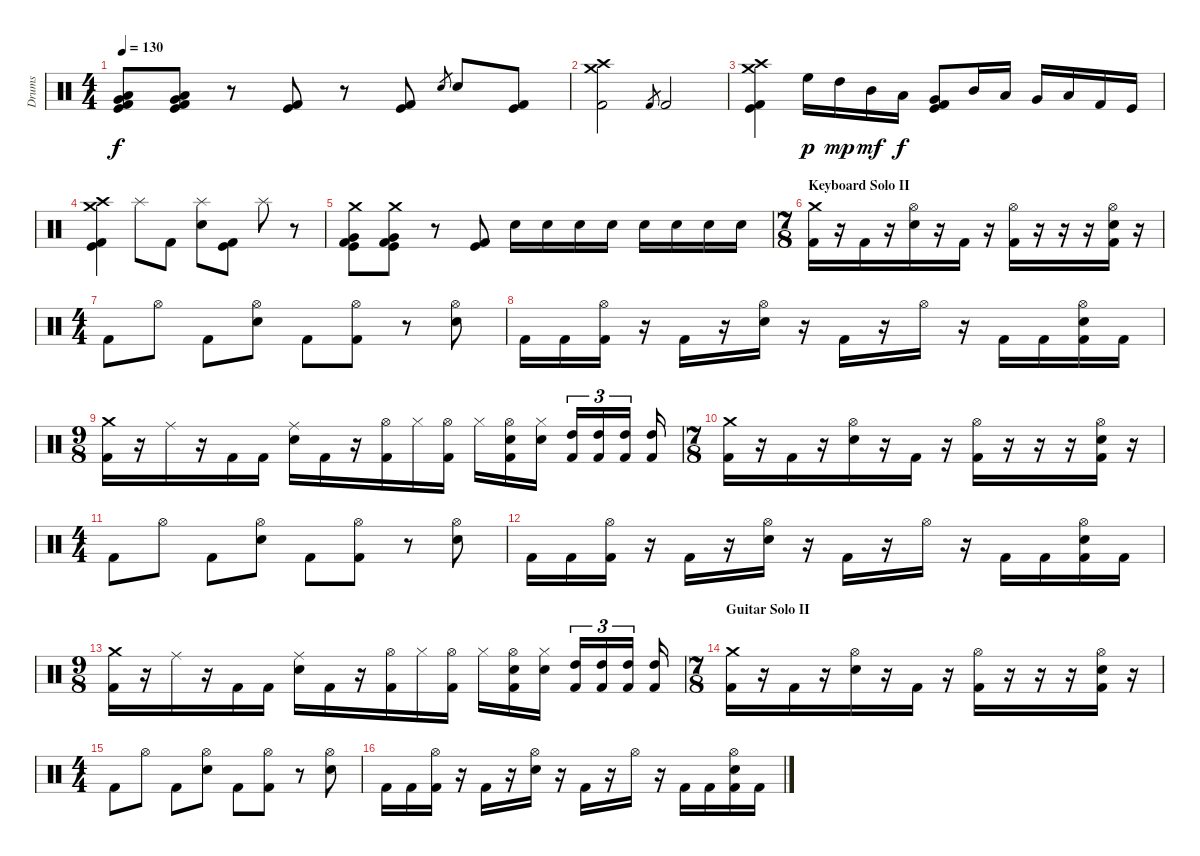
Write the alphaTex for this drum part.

\track ("Drums" "Drums") {instrument percussion}
\staff {score}
\articulation defaults
\ts (4 4)
\tempo 130
\clef neutral
\ks c
("Low Floor Tom (hit)" "Very Low Tom (hit)" "Kick (hit) 2" "Kick (hit)").8{dy f} ("Low Floor Tom (hit)" "Very Low Tom (hit)" "Kick (hit) 2" "Kick (hit)").8 r.8 ("Kick (hit)" "Kick (hit) 2").8 r.8 ("Kick (hit)" "Kick (hit) 2").8 "Electric Snare (hit)".8{gr} "Electric Snare (hit)".8 ("Kick (hit)" "Kick (hit) 2").8 |
("Crash medium (hit)" "Crash high (hit)" "Kick (hit) 2").2 "Kick (hit) 2".8{gr} "Kick (hit) 2".2 |
("Crash medium (hit)" "Crash high (hit)" "Kick (hit) 2" "Kick (hit)").4 "High Floor Tom (hit)".16{dy p} "High Tom (hit)".16{dy mp} "Mid Tom (hit)".16{dy mf} "Low Tom (hit)".16{dy f} ("Very Low Tom (hit)" "Kick (hit) 2" "Kick (hit)").8 "Mid Tom (hit)".16 "Low Tom (hit)".16 "Very Low Tom (hit)".16 "Low Floor Tom (hit)".16 "Kick (hit) 2".16 "Kick (hit)".16 |
("Crash medium (hit)" "Crash high (hit)" "Kick (hit) 2" "Kick (hit)").4 "Splash (hit)".8 "Kick (hit) 2".8 ("Splash (hit)" "Electric Snare (hit)").8 ("Kick (hit) 2" "Kick (hit)").8 "Splash (hit)".8 r.8 |
("Crash medium (hit)" "Very Low Tom (hit)" "Kick (hit) 2" "Kick (hit)").8 ("Crash medium (hit)" "Very Low Tom (hit)" "Kick (hit) 2" "Kick (hit)").8 r.8 ("Kick (hit)" "Kick (hit) 2").8 "Electric Snare (hit)".16 "Electric Snare (hit)".16 "Electric Snare (hit)".16 "Electric Snare (hit)".16 "Electric Snare (hit)".16 "Electric Snare (hit)".16 "Electric Snare (hit)".16 "Electric Snare (hit)".16 |
\ts (7 8)
\section ("" "Keyboard Solo II")
("Crash medium (hit)" "Kick (hit) 2").16 r.16 "Kick (hit) 2".16 r.16 ("Hi-Hat (open)" "Electric Snare (hit)").16 r.16 "Kick (hit) 2".16 r.16 ("Hi-Hat (open)" "Kick (hit) 2").16 r.16 r.16 r.16 ("Hi-Hat (open)" "Electric Snare (hit)" "Kick (hit) 2").16 r.16 |
\ts (4 4)
"Kick (hit) 2".8 "Hi-Hat (open)".8 "Kick (hit) 2".8 ("Hi-Hat (open)" "Electric Snare (hit)").8 "Kick (hit) 2".8 ("Hi-Hat (open)" "Kick (hit) 2").8 r.8 ("Hi-Hat (open)" "Electric Snare (hit)").8 |
"Kick (hit) 2".16 "Kick (hit) 2".16 ("Hi-Hat (open)" "Kick (hit) 2").16 r.16 "Kick (hit) 2".16 r.16 ("Hi-Hat (open)" "Electric Snare (hit)").16 r.16 "Kick (hit) 2".16 r.16 "Hi-Hat (open)".16 r.16 "Kick (hit) 2".16 "Kick (hit) 2".16 ("Hi-Hat (open)" "Electric Snare (hit)" "Kick (hit) 2").16 "Kick (hit) 2".16 |
\ts (9 8)
("Crash medium (hit)" "Kick (hit) 2").16 r.16 "Ride (middle)".16 r.16 "Kick (hit) 2".16 "Kick (hit) 2".16 ("Ride (middle)" "Electric Snare (hit)").16 "Kick (hit) 2".16 r.16 ("Hi-Hat (open)" "Kick (hit) 2").16 "Hi-Hat (closed)".16 ("Hi-Hat (open)" "Kick (hit) 2").16 "Hi-Hat (closed)".16 ("Hi-Hat (open)" "Electric Snare (hit)" "Kick (hit) 2").16 ("Hi-Hat (closed)" "Electric Snare (hit)").16 ("High Tom (hit)" "Kick (hit) 2").16{tu (3 2)} ("High Tom (hit)" "Kick (hit) 2").16{tu (3 2)} ("High Tom (hit)" "Kick (hit) 2").16{tu (3 2)} ("High Tom (hit)" "Kick (hit) 2").16 |
\ts (7 8)
("Crash medium (hit)" "Kick (hit) 2").16 r.16 "Kick (hit) 2".16 r.16 ("Hi-Hat (open)" "Electric Snare (hit)").16 r.16 "Kick (hit) 2".16 r.16 ("Hi-Hat (open)" "Kick (hit) 2").16 r.16 r.16 r.16 ("Hi-Hat (open)" "Electric Snare (hit)" "Kick (hit) 2").16 r.16 |
\ts (4 4)
"Kick (hit) 2".8 "Hi-Hat (open)".8 "Kick (hit) 2".8 ("Hi-Hat (open)" "Electric Snare (hit)").8 "Kick (hit) 2".8 ("Hi-Hat (open)" "Kick (hit) 2").8 r.8 ("Hi-Hat (open)" "Electric Snare (hit)").8 |
"Kick (hit) 2".16 "Kick (hit) 2".16 ("Hi-Hat (open)" "Kick (hit) 2").16 r.16 "Kick (hit) 2".16 r.16 ("Hi-Hat (open)" "Electric Snare (hit)").16 r.16 "Kick (hit) 2".16 r.16 "Hi-Hat (open)".16 r.16 "Kick (hit) 2".16 "Kick (hit) 2".16 ("Hi-Hat (open)" "Electric Snare (hit)" "Kick (hit) 2").16 "Kick (hit) 2".16 |
\ts (9 8)
("Crash medium (hit)" "Kick (hit) 2").16 r.16 "Ride (middle)".16 r.16 "Kick (hit) 2".16 "Kick (hit) 2".16 ("Ride (middle)" "Electric Snare (hit)").16 "Kick (hit) 2".16 r.16 ("Hi-Hat (open)" "Kick (hit) 2").16 "Hi-Hat (closed)".16 ("Hi-Hat (open)" "Kick (hit) 2").16 "Hi-Hat (closed)".16 ("Hi-Hat (open)" "Electric Snare (hit)" "Kick (hit) 2").16 ("Hi-Hat (closed)" "Electric Snare (hit)").16 ("High Tom (hit)" "Kick (hit) 2").16{tu (3 2)} ("High Tom (hit)" "Kick (hit) 2").16{tu (3 2)} ("High Tom (hit)" "Kick (hit) 2").16{tu (3 2)} ("High Tom (hit)" "Kick (hit) 2").16 |
\ts (7 8)
\section ("" "Guitar Solo II")
("Crash medium (hit)" "Kick (hit) 2").16 r.16 "Kick (hit) 2".16 r.16 ("Hi-Hat (open)" "Electric Snare (hit)").16 r.16 "Kick (hit) 2".16 r.16 ("Hi-Hat (open)" "Kick (hit) 2").16 r.16 r.16 r.16 ("Hi-Hat (open)" "Electric Snare (hit)" "Kick (hit) 2").16 r.16 |
\ts (4 4)
"Kick (hit) 2".8 "Hi-Hat (open)".8 "Kick (hit) 2".8 ("Hi-Hat (open)" "Electric Snare (hit)").8 "Kick (hit) 2".8 ("Hi-Hat (open)" "Kick (hit) 2").8 r.8 ("Hi-Hat (open)" "Electric Snare (hit)").8 |
"Kick (hit) 2".16 "Kick (hit) 2".16 ("Hi-Hat (open)" "Kick (hit) 2").16 r.16 "Kick (hit) 2".16 r.16 ("Hi-Hat (open)" "Electric Snare (hit)").16 r.16 "Kick (hit) 2".16 r.16 "Hi-Hat (open)".16 r.16 "Kick (hit) 2".16 "Kick (hit) 2".16 ("Hi-Hat (open)" "Electric Snare (hit)" "Kick (hit) 2").16 "Kick (hit) 2".16
